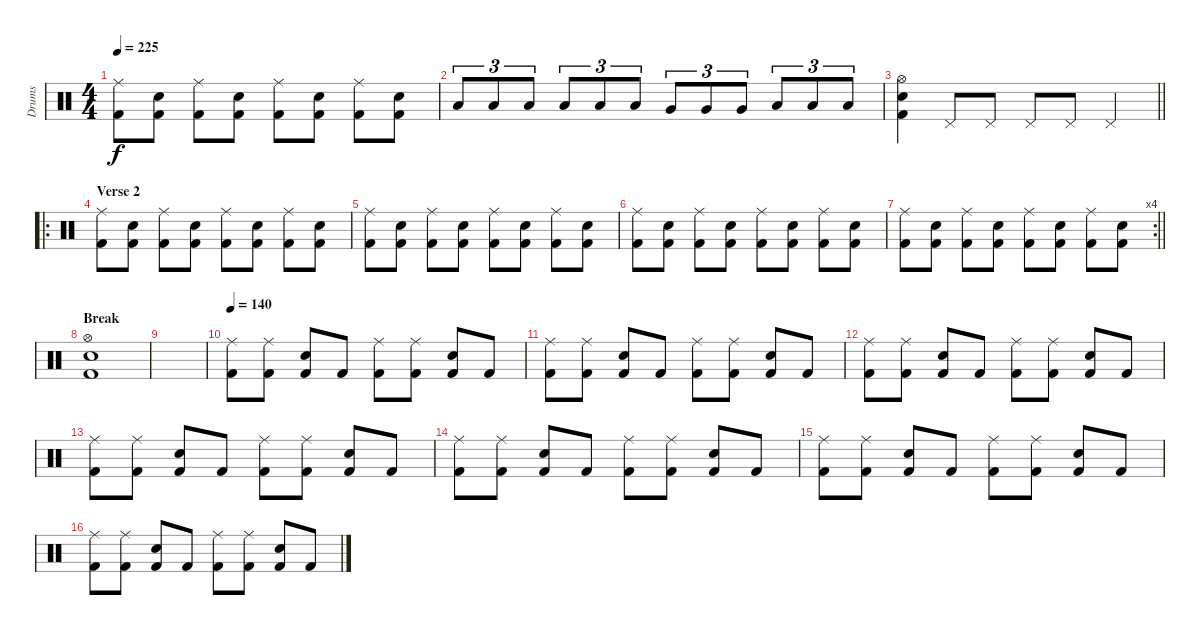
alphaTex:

\track ("Drums" "Drums") {instrument percussion}
\staff {score}
\articulation defaults
\ts (4 4)
\tempo 225
\clef neutral
\ks c
("Ride (middle)" "Kick (hit) 2").8{dy f} ("Snare (hit) 2" "Kick (hit) 2").8 ("Ride (middle)" "Kick (hit) 2").8 ("Snare (hit) 2" "Kick (hit) 2").8 ("Ride (middle)" "Kick (hit) 2").8 ("Snare (hit) 2" "Kick (hit) 2").8 ("Ride (middle)" "Kick (hit) 2").8 ("Snare (hit) 2" "Kick (hit) 2").8 |
"Low Tom (hit)".8{tu (3 2)} "Low Tom (hit)".8{tu (3 2)} "Low Tom (hit)".8{tu (3 2)} "Low Tom (hit)".8{tu (3 2)} "Low Tom (hit)".8{tu (3 2)} "Low Tom (hit)".8{tu (3 2)} "Very Low Tom (hit)".8{tu (3 2)} "Very Low Tom (hit)".8{tu (3 2)} "Very Low Tom (hit)".8{tu (3 2)} "Low Floor Tom (hit)".8{tu (3 2)} "Low Floor Tom (hit)".8{tu (3 2)} "Low Floor Tom (hit)".8{tu (3 2)} |
\barLineRight lightlight
("Hi-Hat (open)" "Snare (hit) 2" "Kick (hit) 2").4 "Pedal Hi-Hat (hit)".8 "Pedal Hi-Hat (hit)".8 "Pedal Hi-Hat (hit)".8 "Pedal Hi-Hat (hit)".8 "Pedal Hi-Hat (hit)".4 |
\ro
\section ("" "Verse 2")
("Ride (middle)" "Kick (hit) 2").8 ("Snare (hit) 2" "Kick (hit) 2").8 ("Ride (middle)" "Kick (hit) 2").8 ("Snare (hit) 2" "Kick (hit) 2").8 ("Ride (middle)" "Kick (hit) 2").8 ("Snare (hit) 2" "Kick (hit) 2").8 ("Ride (middle)" "Kick (hit) 2").8 ("Snare (hit) 2" "Kick (hit) 2").8 |
("Ride (middle)" "Kick (hit) 2").8 ("Snare (hit) 2" "Kick (hit) 2").8 ("Ride (middle)" "Kick (hit) 2").8 ("Snare (hit) 2" "Kick (hit) 2").8 ("Ride (middle)" "Kick (hit) 2").8 ("Snare (hit) 2" "Kick (hit) 2").8 ("Ride (middle)" "Kick (hit) 2").8 ("Snare (hit) 2" "Kick (hit) 2").8 |
("Ride (middle)" "Kick (hit) 2").8 ("Snare (hit) 2" "Kick (hit) 2").8 ("Ride (middle)" "Kick (hit) 2").8 ("Snare (hit) 2" "Kick (hit) 2").8 ("Ride (middle)" "Kick (hit) 2").8 ("Snare (hit) 2" "Kick (hit) 2").8 ("Ride (middle)" "Kick (hit) 2").8 ("Snare (hit) 2" "Kick (hit) 2").8 |
\rc 4
\barLineRight lightlight
("Ride (middle)" "Kick (hit) 2").8 ("Snare (hit) 2" "Kick (hit) 2").8 ("Ride (middle)" "Kick (hit) 2").8 ("Snare (hit) 2" "Kick (hit) 2").8 ("Ride (middle)" "Kick (hit) 2").8 ("Snare (hit) 2" "Kick (hit) 2").8 ("Ride (middle)" "Kick (hit) 2").8 ("Snare (hit) 2" "Kick (hit) 2").8 |
\section ("" "Break")
("Hi-Hat (open)" "Snare (hit) 2" "Kick (hit) 2").1 |
|
\tempo 140
("Ride (middle)" "Kick (hit) 2").8 ("Ride (middle)" "Kick (hit) 2").8 ("Snare (hit) 2" "Kick (hit) 2").8 "Kick (hit) 2".8 ("Ride (middle)" "Kick (hit) 2").8 ("Ride (middle)" "Kick (hit) 2").8 ("Snare (hit) 2" "Kick (hit) 2").8 "Kick (hit) 2".8 |
("Ride (middle)" "Kick (hit) 2").8 ("Ride (middle)" "Kick (hit) 2").8 ("Snare (hit) 2" "Kick (hit) 2").8 "Kick (hit) 2".8 ("Ride (middle)" "Kick (hit) 2").8 ("Ride (middle)" "Kick (hit) 2").8 ("Snare (hit) 2" "Kick (hit) 2").8 "Kick (hit) 2".8 |
("Ride (middle)" "Kick (hit) 2").8 ("Ride (middle)" "Kick (hit) 2").8 ("Snare (hit) 2" "Kick (hit) 2").8 "Kick (hit) 2".8 ("Ride (middle)" "Kick (hit) 2").8 ("Ride (middle)" "Kick (hit) 2").8 ("Snare (hit) 2" "Kick (hit) 2").8 "Kick (hit) 2".8 |
("Ride (middle)" "Kick (hit) 2").8 ("Ride (middle)" "Kick (hit) 2").8 ("Snare (hit) 2" "Kick (hit) 2").8 "Kick (hit) 2".8 ("Ride (middle)" "Kick (hit) 2").8 ("Ride (middle)" "Kick (hit) 2").8 ("Snare (hit) 2" "Kick (hit) 2").8 "Kick (hit) 2".8 |
("Ride (middle)" "Kick (hit) 2").8 ("Ride (middle)" "Kick (hit) 2").8 ("Snare (hit) 2" "Kick (hit) 2").8 "Kick (hit) 2".8 ("Ride (middle)" "Kick (hit) 2").8 ("Ride (middle)" "Kick (hit) 2").8 ("Snare (hit) 2" "Kick (hit) 2").8 "Kick (hit) 2".8 |
("Ride (middle)" "Kick (hit) 2").8 ("Ride (middle)" "Kick (hit) 2").8 ("Snare (hit) 2" "Kick (hit) 2").8 "Kick (hit) 2".8 ("Ride (middle)" "Kick (hit) 2").8 ("Ride (middle)" "Kick (hit) 2").8 ("Snare (hit) 2" "Kick (hit) 2").8 "Kick (hit) 2".8 |
("Ride (middle)" "Kick (hit) 2").8 ("Ride (middle)" "Kick (hit) 2").8 ("Snare (hit) 2" "Kick (hit) 2").8 "Kick (hit) 2".8 ("Ride (middle)" "Kick (hit) 2").8 ("Ride (middle)" "Kick (hit) 2").8 ("Snare (hit) 2" "Kick (hit) 2").8 "Kick (hit) 2".8
